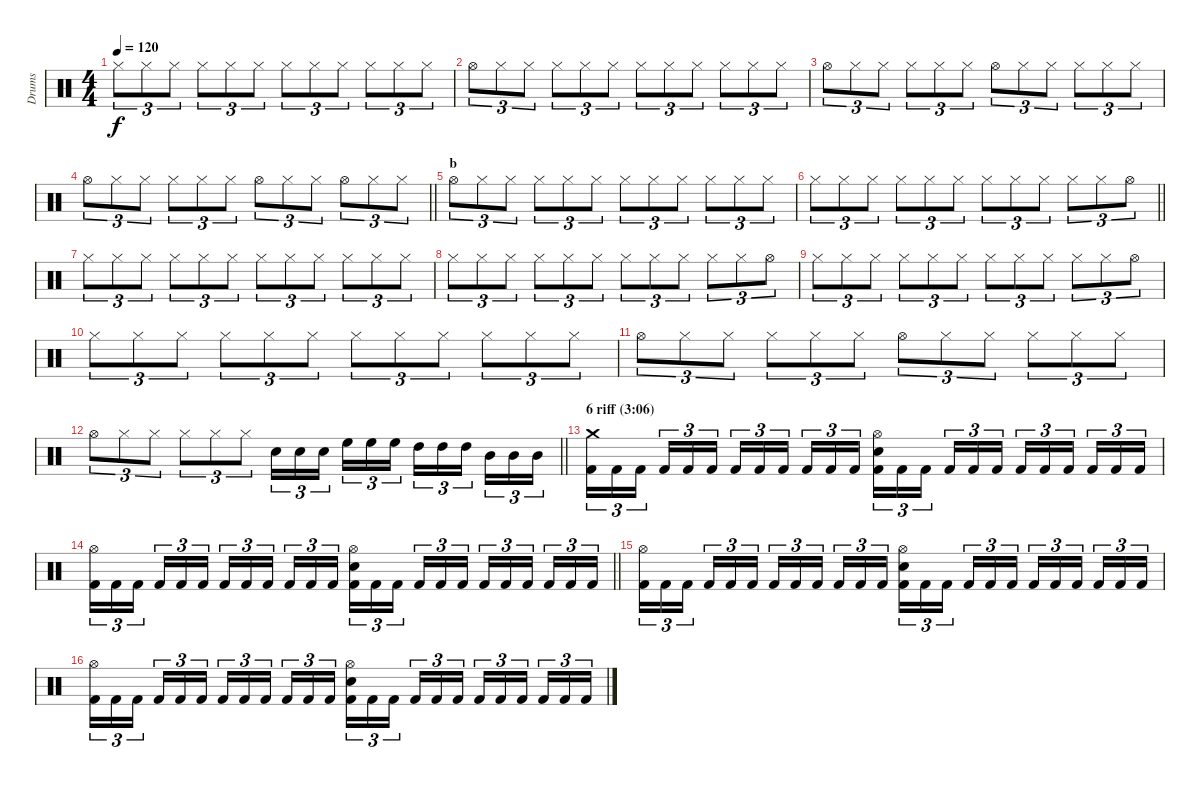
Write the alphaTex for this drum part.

\track ("Drums" "Drums") {instrument percussion}
\staff {score}
\articulation defaults
\ts (4 4)
\tempo 120
\clef neutral
\ks c "Hi-Hat (closed)".8{tu (3 2) dy f} "Hi-Hat (closed)".8{tu (3 2)} "Hi-Hat (closed)".8{tu (3 2)} "Hi-Hat (closed)".8{tu (3 2)} "Hi-Hat (closed)".8{tu (3 2)} "Hi-Hat (closed)".8{tu (3 2)} "Hi-Hat (closed)".8{tu (3 2)} "Hi-Hat (closed)".8{tu (3 2)} "Hi-Hat (closed)".8{tu (3 2)} "Hi-Hat (closed)".8{tu (3 2)} "Hi-Hat (closed)".8{tu (3 2)} "Hi-Hat (closed)".8{tu (3 2)}
|
"Hi-Hat (open)".8{tu (3 2)} "Hi-Hat (closed)".8{tu (3 2)} "Hi-Hat (closed)".8{tu (3 2)} "Hi-Hat (closed)".8{tu (3 2)} "Hi-Hat (closed)".8{tu (3 2)} "Hi-Hat (closed)".8{tu (3 2)} "Hi-Hat (closed)".8{tu (3 2)} "Hi-Hat (closed)".8{tu (3 2)} "Hi-Hat (closed)".8{tu (3 2)} "Hi-Hat (closed)".8{tu (3 2)} "Hi-Hat (closed)".8{tu (3 2)} "Hi-Hat (closed)".8{tu (3 2)} |
"Hi-Hat (open)".8{tu (3 2)} "Hi-Hat (closed)".8{tu (3 2)} "Hi-Hat (closed)".8{tu (3 2)} "Hi-Hat (closed)".8{tu (3 2)} "Hi-Hat (closed)".8{tu (3 2)} "Hi-Hat (closed)".8{tu (3 2)} "Hi-Hat (open)".8{tu (3 2)} "Hi-Hat (closed)".8{tu (3 2)} "Hi-Hat (closed)".8{tu (3 2)} "Hi-Hat (closed)".8{tu (3 2)} "Hi-Hat (closed)".8{tu (3 2)} "Hi-Hat (closed)".8{tu (3 2)} |
\barLineRight lightlight "Hi-Hat (open)".8{tu (3 2)} "Hi-Hat (closed)".8{tu (3 2)} "Hi-Hat (closed)".8{tu (3 2)} "Hi-Hat (closed)".8{tu (3 2)} "Hi-Hat (closed)".8{tu (3 2)} "Hi-Hat (closed)".8{tu (3 2)} "Hi-Hat (open)".8{tu (3 2)} "Hi-Hat (closed)".8{tu (3 2)} "Hi-Hat (closed)".8{tu (3 2)} "Hi-Hat (open)".8{tu (3 2)} "Hi-Hat (closed)".8{tu (3 2)} "Hi-Hat (closed)".8{tu (3 2)}
|
\section ("" "b")
"Hi-Hat (open)".8{tu (3 2)} "Hi-Hat (closed)".8{tu (3 2)} "Hi-Hat (closed)".8{tu (3 2)} "Hi-Hat (closed)".8{tu (3 2)} "Hi-Hat (closed)".8{tu (3 2)} "Hi-Hat (closed)".8{tu (3 2)} "Hi-Hat (closed)".8{tu (3 2)} "Hi-Hat (closed)".8{tu (3 2)} "Hi-Hat (closed)".8{tu (3 2)} "Hi-Hat (closed)".8{tu (3 2)} "Hi-Hat (closed)".8{tu (3 2)} "Hi-Hat (closed)".8{tu (3 2)} |
\barLineRight lightlight "Hi-Hat (closed)".8{tu (3 2)} "Hi-Hat (closed)".8{tu (3 2)} "Hi-Hat (closed)".8{tu (3 2)} "Hi-Hat (closed)".8{tu (3 2)} "Hi-Hat (closed)".8{tu (3 2)} "Hi-Hat (closed)".8{tu (3 2)} "Hi-Hat (closed)".8{tu (3 2)} "Hi-Hat (closed)".8{tu (3 2)} "Hi-Hat (closed)".8{tu (3 2)} "Hi-Hat (closed)".8{tu (3 2)} "Hi-Hat (closed)".8{tu (3 2)} "Hi-Hat (open)".8{tu (3 2)}
|
"Hi-Hat (closed)".8{tu (3 2)} "Hi-Hat (closed)".8{tu (3 2)} "Hi-Hat (closed)".8{tu (3 2)} "Hi-Hat (closed)".8{tu (3 2)} "Hi-Hat (closed)".8{tu (3 2)} "Hi-Hat (closed)".8{tu (3 2)} "Hi-Hat (closed)".8{tu (3 2)} "Hi-Hat (closed)".8{tu (3 2)} "Hi-Hat (closed)".8{tu (3 2)} "Hi-Hat (closed)".8{tu (3 2)} "Hi-Hat (closed)".8{tu (3 2)} "Hi-Hat (closed)".8{tu (3 2)} |
"Hi-Hat (closed)".8{tu (3 2)} "Hi-Hat (closed)".8{tu (3 2)} "Hi-Hat (closed)".8{tu (3 2)} "Hi-Hat (closed)".8{tu (3 2)} "Hi-Hat (closed)".8{tu (3 2)} "Hi-Hat (closed)".8{tu (3 2)} "Hi-Hat (closed)".8{tu (3 2)} "Hi-Hat (closed)".8{tu (3 2)} "Hi-Hat (closed)".8{tu (3 2)} "Hi-Hat (closed)".8{tu (3 2)} "Hi-Hat (closed)".8{tu (3 2)} "Hi-Hat (open)".8{tu (3 2)} |
"Hi-Hat (closed)".8{tu (3 2)} "Hi-Hat (closed)".8{tu (3 2)} "Hi-Hat (closed)".8{tu (3 2)} "Hi-Hat (closed)".8{tu (3 2)} "Hi-Hat (closed)".8{tu (3 2)} "Hi-Hat (closed)".8{tu (3 2)} "Hi-Hat (closed)".8{tu (3 2)} "Hi-Hat (closed)".8{tu (3 2)} "Hi-Hat (closed)".8{tu (3 2)} "Hi-Hat (closed)".8{tu (3 2)} "Hi-Hat (closed)".8{tu (3 2)} "Hi-Hat (open)".8{tu (3 2)} |
"Hi-Hat (closed)".8{tu (3 2)} "Hi-Hat (closed)".8{tu (3 2)} "Hi-Hat (closed)".8{tu (3 2)} "Hi-Hat (closed)".8{tu (3 2)} "Hi-Hat (closed)".8{tu (3 2)} "Hi-Hat (closed)".8{tu (3 2)} "Hi-Hat (closed)".8{tu (3 2)} "Hi-Hat (closed)".8{tu (3 2)} "Hi-Hat (closed)".8{tu (3 2)} "Hi-Hat (closed)".8{tu (3 2)} "Hi-Hat (closed)".8{tu (3 2)} "Hi-Hat (closed)".8{tu (3 2)} |
"Hi-Hat (open)".8{tu (3 2)} "Hi-Hat (closed)".8{tu (3 2)} "Hi-Hat (closed)".8{tu (3 2)} "Hi-Hat (closed)".8{tu (3 2)} "Hi-Hat (closed)".8{tu (3 2)} "Hi-Hat (closed)".8{tu (3 2)} "Hi-Hat (open)".8{tu (3 2)} "Hi-Hat (closed)".8{tu (3 2)} "Hi-Hat (closed)".8{tu (3 2)} "Hi-Hat (closed)".8{tu (3 2)} "Hi-Hat (closed)".8{tu (3 2)} "Hi-Hat (closed)".8{tu (3 2)} |
\barLineRight lightlight "Hi-Hat (open)".8{tu (3 2)} "Hi-Hat (closed)".8{tu (3 2)} "Hi-Hat (closed)".8{tu (3 2)} "Hi-Hat (closed)".8{tu (3 2)} "Hi-Hat (closed)".8{tu (3 2)} "Hi-Hat (closed)".8{tu (3 2)} "Snare (hit) 2".16{tu (3 2)} "Snare (hit) 2".16{tu (3 2)} "Snare (hit) 2".16{tu (3 2) beam splitsecondary} "High Floor Tom (hit)".16{tu (3 2)} "High Floor Tom (hit)".16{tu (3 2)} "High Floor Tom (hit)".16{tu (3 2)} "High Tom (hit)".16{tu (3 2)} "High Tom (hit)".16{tu (3 2)} "High Tom (hit)".16{tu (3 2) beam splitsecondary} "Mid Tom (hit)".16{tu (3 2)} "Mid Tom (hit)".16{tu (3 2)} "Mid Tom (hit)".16{tu (3 2)}
|
\section ("" "6 riff (3:06)")
("Crash medium (hit)" "Kick (hit) 2").16{tu (3 2)} "Kick (hit) 2".16{tu (3 2)} "Kick (hit) 2".16{tu (3 2) beam splitsecondary} "Kick (hit) 2".16{tu (3 2)} "Kick (hit) 2".16{tu (3 2)} "Kick (hit) 2".16{tu (3 2)} "Kick (hit) 2".16{tu (3 2)} "Kick (hit) 2".16{tu (3 2)} "Kick (hit) 2".16{tu (3 2) beam splitsecondary} "Kick (hit) 2".16{tu (3 2)} "Kick (hit) 2".16{tu (3 2)} "Kick (hit) 2".16{tu (3 2)} ("Hi-Hat (open)" "Snare (hit) 2" "Kick (hit) 2").16{tu (3 2)} "Kick (hit) 2".16{tu (3 2)} "Kick (hit) 2".16{tu (3 2) beam splitsecondary} "Kick (hit) 2".16{tu (3 2)} "Kick (hit) 2".16{tu (3 2)} "Kick (hit) 2".16{tu (3 2)} "Kick (hit) 2".16{tu (3 2)} "Kick (hit) 2".16{tu (3 2)} "Kick (hit) 2".16{tu (3 2) beam splitsecondary} "Kick (hit) 2".16{tu (3 2)} "Kick (hit) 2".16{tu (3 2)} "Kick (hit) 2".16{tu (3 2)} |
\barLineRight lightlight
("Hi-Hat (open)" "Kick (hit) 2").16{tu (3 2)} "Kick (hit) 2".16{tu (3 2)} "Kick (hit) 2".16{tu (3 2) beam splitsecondary} "Kick (hit) 2".16{tu (3 2)} "Kick (hit) 2".16{tu (3 2)} "Kick (hit) 2".16{tu (3 2)} "Kick (hit) 2".16{tu (3 2)} "Kick (hit) 2".16{tu (3 2)} "Kick (hit) 2".16{tu (3 2) beam splitsecondary} "Kick (hit) 2".16{tu (3 2)} "Kick (hit) 2".16{tu (3 2)} "Kick (hit) 2".16{tu (3 2)} ("Hi-Hat (open)" "Snare (hit) 2" "Kick (hit) 2").16{tu (3 2)} "Kick (hit) 2".16{tu (3 2)} "Kick (hit) 2".16{tu (3 2) beam splitsecondary} "Kick (hit) 2".16{tu (3 2)} "Kick (hit) 2".16{tu (3 2)} "Kick (hit) 2".16{tu (3 2)} "Kick (hit) 2".16{tu (3 2)} "Kick (hit) 2".16{tu (3 2)} "Kick (hit) 2".16{tu (3 2) beam splitsecondary} "Kick (hit) 2".16{tu (3 2)} "Kick (hit) 2".16{tu (3 2)} "Kick (hit) 2".16{tu (3 2)} |
("Hi-Hat (open)" "Kick (hit) 2").16{tu (3 2)} "Kick (hit) 2".16{tu (3 2)} "Kick (hit) 2".16{tu (3 2) beam splitsecondary} "Kick (hit) 2".16{tu (3 2)} "Kick (hit) 2".16{tu (3 2)} "Kick (hit) 2".16{tu (3 2)} "Kick (hit) 2".16{tu (3 2)} "Kick (hit) 2".16{tu (3 2)} "Kick (hit) 2".16{tu (3 2) beam splitsecondary} "Kick (hit) 2".16{tu (3 2)} "Kick (hit) 2".16{tu (3 2)} "Kick (hit) 2".16{tu (3 2)} ("Hi-Hat (open)" "Snare (hit) 2" "Kick (hit) 2").16{tu (3 2)} "Kick (hit) 2".16{tu (3 2)} "Kick (hit) 2".16{tu (3 2) beam splitsecondary} "Kick (hit) 2".16{tu (3 2)} "Kick (hit) 2".16{tu (3 2)} "Kick (hit) 2".16{tu (3 2)} "Kick (hit) 2".16{tu (3 2)} "Kick (hit) 2".16{tu (3 2)} "Kick (hit) 2".16{tu (3 2) beam splitsecondary} "Kick (hit) 2".16{tu (3 2)} "Kick (hit) 2".16{tu (3 2)} "Kick (hit) 2".16{tu (3 2)} |
("Hi-Hat (open)" "Kick (hit) 2").16{tu (3 2)} "Kick (hit) 2".16{tu (3 2)} "Kick (hit) 2".16{tu (3 2) beam splitsecondary} "Kick (hit) 2".16{tu (3 2)} "Kick (hit) 2".16{tu (3 2)} "Kick (hit) 2".16{tu (3 2)} "Kick (hit) 2".16{tu (3 2)} "Kick (hit) 2".16{tu (3 2)} "Kick (hit) 2".16{tu (3 2) beam splitsecondary} "Kick (hit) 2".16{tu (3 2)} "Kick (hit) 2".16{tu (3 2)} "Kick (hit) 2".16{tu (3 2)} ("Hi-Hat (open)" "Snare (hit) 2" "Kick (hit) 2").16{tu (3 2)} "Kick (hit) 2".16{tu (3 2)} "Kick (hit) 2".16{tu (3 2) beam splitsecondary} "Kick (hit) 2".16{tu (3 2)} "Kick (hit) 2".16{tu (3 2)} "Kick (hit) 2".16{tu (3 2)} "Kick (hit) 2".16{tu (3 2)} "Kick (hit) 2".16{tu (3 2)} "Kick (hit) 2".16{tu (3 2) beam splitsecondary} "Kick (hit) 2".16{tu (3 2)} "Kick (hit) 2".16{tu (3 2)} "Kick (hit) 2".16{tu (3 2)}
